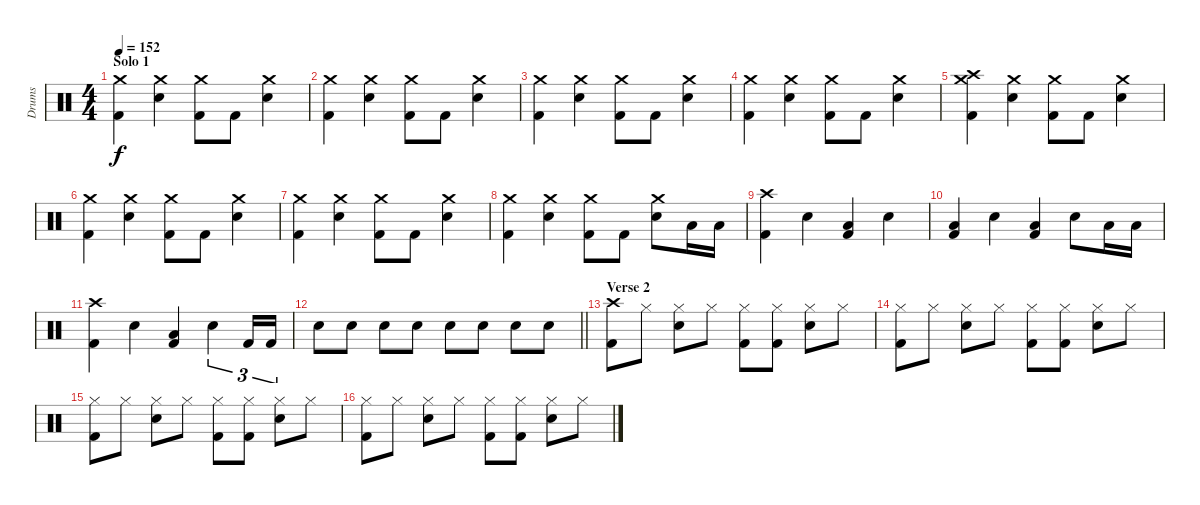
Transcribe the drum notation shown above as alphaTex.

\track ("Drums" "Drums") {instrument percussion}
\staff {score}
\articulation defaults
\ts (4 4)
\section ("" "Solo 1")
\tempo 152
\clef neutral
\ks c
("Crash medium (hit)" "Kick (hit) 2").4{dy f} ("Crash medium (hit)" "Snare (hit) 2").4 ("Crash medium (hit)" "Kick (hit) 2").8 "Kick (hit) 2".8 ("Crash medium (hit)" "Snare (hit) 2").4 |
("Crash medium (hit)" "Kick (hit) 2").4 ("Crash medium (hit)" "Snare (hit) 2").4 ("Crash medium (hit)" "Kick (hit) 2").8 "Kick (hit) 2".8 ("Crash medium (hit)" "Snare (hit) 2").4 |
("Crash medium (hit)" "Kick (hit) 2").4 ("Crash medium (hit)" "Snare (hit) 2").4 ("Crash medium (hit)" "Kick (hit) 2").8 "Kick (hit) 2".8 ("Crash medium (hit)" "Snare (hit) 2").4 |
("Crash medium (hit)" "Kick (hit) 2").4 ("Crash medium (hit)" "Snare (hit) 2").4 ("Crash medium (hit)" "Kick (hit) 2").8 "Kick (hit) 2".8 ("Crash medium (hit)" "Snare (hit) 2").4 |
("Crash high (hit)" "Crash medium (hit)" "Kick (hit) 2").4 ("Crash medium (hit)" "Snare (hit) 2").4 ("Crash medium (hit)" "Kick (hit) 2").8 "Kick (hit) 2".8 ("Crash medium (hit)" "Snare (hit) 2").4 |
("Crash medium (hit)" "Kick (hit) 2").4 ("Crash medium (hit)" "Snare (hit) 2").4 ("Crash medium (hit)" "Kick (hit) 2").8 "Kick (hit) 2".8 ("Crash medium (hit)" "Snare (hit) 2").4 |
("Crash medium (hit)" "Kick (hit) 2").4 ("Crash medium (hit)" "Snare (hit) 2").4 ("Crash medium (hit)" "Kick (hit) 2").8 "Kick (hit) 2".8 ("Crash medium (hit)" "Snare (hit) 2").4 |
("Crash medium (hit)" "Kick (hit) 2").4 ("Crash medium (hit)" "Snare (hit) 2").4 ("Crash medium (hit)" "Kick (hit) 2").8 "Kick (hit) 2".8 ("Crash medium (hit)" "Snare (hit) 2").8 "Low Tom (hit)".16 "Low Tom (hit)".16 |
("Crash high (hit)" "Kick (hit) 2").4 "Snare (hit) 2".4 ("Low Floor Tom (hit)" "Kick (hit) 2").4 "Snare (hit) 2".4 |
("Low Floor Tom (hit)" "Kick (hit) 2").4 "Snare (hit) 2".4 ("Low Floor Tom (hit)" "Kick (hit) 2").4 "Snare (hit) 2".8 "Low Tom (hit)".16 "Low Tom (hit)".16 |
("Crash high (hit)" "Kick (hit) 2").4 "Snare (hit) 2".4 ("Low Floor Tom (hit)" "Kick (hit) 2").4 "Snare (hit) 2".4{tu (3 2)} "Kick (hit) 2".16{tu (3 2)} "Kick (hit) 2".16{tu (3 2)} |
\barLineRight lightlight "Snare (hit) 2".8 "Snare (hit) 2".8 "Snare (hit) 2".8 "Snare (hit) 2".8 "Snare (hit) 2".8 "Snare (hit) 2".8 "Snare (hit) 2".8 "Snare (hit) 2".8
|
\section ("" "Verse 2")
("Crash high (hit)" "Kick (hit) 2").8 "Hi-Hat (closed)".8 ("Hi-Hat (closed)" "Snare (hit) 2").8 "Hi-Hat (closed)".8 ("Hi-Hat (closed)" "Kick (hit) 2").8 ("Hi-Hat (closed)" "Kick (hit) 2").8 ("Hi-Hat (closed)" "Snare (hit) 2").8 "Hi-Hat (closed)".8 |
("Hi-Hat (closed)" "Kick (hit) 2").8 "Hi-Hat (closed)".8 ("Hi-Hat (closed)" "Snare (hit) 2").8 "Hi-Hat (closed)".8 ("Hi-Hat (closed)" "Kick (hit) 2").8 ("Hi-Hat (closed)" "Kick (hit) 2").8 ("Hi-Hat (closed)" "Snare (hit) 2").8 "Hi-Hat (closed)".8 |
("Hi-Hat (closed)" "Kick (hit) 2").8 "Hi-Hat (closed)".8 ("Hi-Hat (closed)" "Snare (hit) 2").8 "Hi-Hat (closed)".8 ("Hi-Hat (closed)" "Kick (hit) 2").8 ("Hi-Hat (closed)" "Kick (hit) 2").8 ("Hi-Hat (closed)" "Snare (hit) 2").8 "Hi-Hat (closed)".8 |
("Hi-Hat (closed)" "Kick (hit) 2").8 "Hi-Hat (closed)".8 ("Hi-Hat (closed)" "Snare (hit) 2").8 "Hi-Hat (closed)".8 ("Hi-Hat (closed)" "Kick (hit) 2").8 ("Hi-Hat (closed)" "Kick (hit) 2").8 ("Hi-Hat (closed)" "Snare (hit) 2").8 "Hi-Hat (closed)".8
